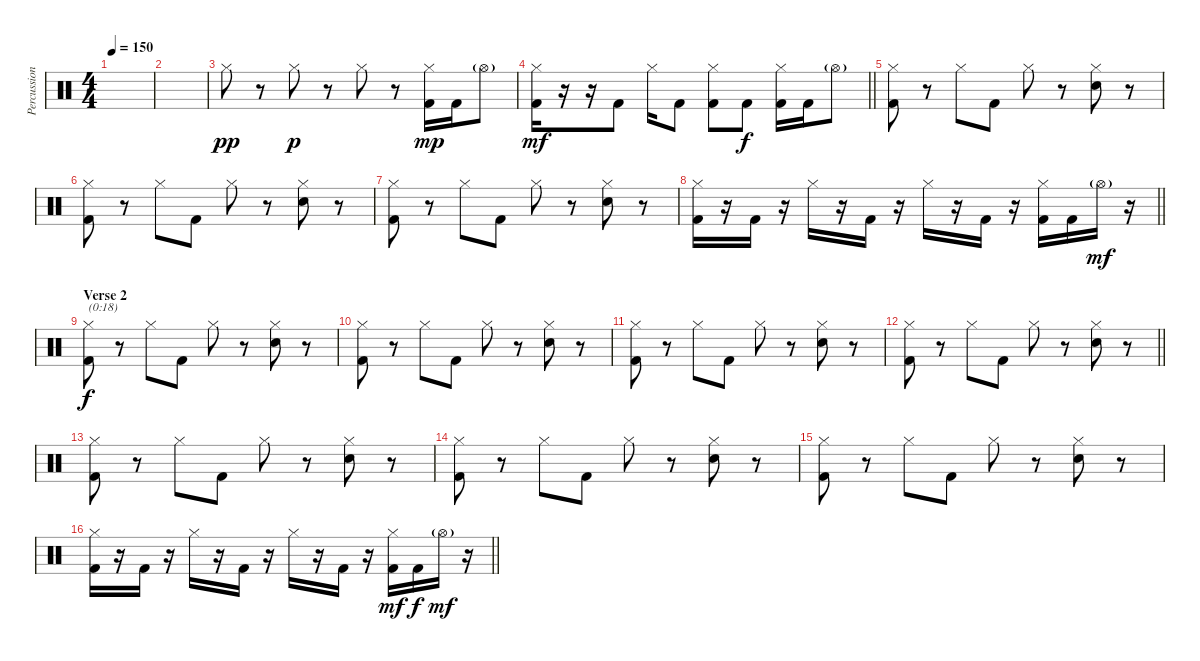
\track ("Percussion" "Percussion") {instrument percussion}
\staff {score}
\articulation defaults
\ts (4 4)
\tempo 150
\clef neutral
\ks c
|
|
"Hi-Hat (closed)".8{dy pp} r.8 "Hi-Hat (closed)".8{dy p} r.8 "Hi-Hat (closed)".8 r.8 ("Hi-Hat (closed)" "Kick (hit) 2").16{dy mp} "Kick (hit) 2".16 "Hi-Hat (open)"{g}.8 |
\barLineRight lightlight
("Hi-Hat (closed)" "Kick (hit) 2").16{dy mf} r.16 r.16 "Kick (hit) 2".8 "Hi-Hat (closed)".16 "Kick (hit) 2".8 ("Hi-Hat (closed)" "Kick (hit) 2").8 "Kick (hit) 2".8{dy f} ("Hi-Hat (closed)" "Kick (hit) 2").16 "Kick (hit) 2".16 "Hi-Hat (open)"{g}.8 |
\section ("" "")
("Hi-Hat (closed)" "Kick (hit) 2").8{volume 13} r.8 "Hi-Hat (closed)".8 "Kick (hit) 2".8 "Hi-Hat (closed)".8 r.8 ("Hi-Hat (closed)" "Hand Clap (hit)").8 r.8 |
("Hi-Hat (closed)" "Kick (hit) 2").8 r.8 "Hi-Hat (closed)".8 "Kick (hit) 2".8 "Hi-Hat (closed)".8 r.8 ("Hi-Hat (closed)" "Hand Clap (hit)").8 r.8 |
("Hi-Hat (closed)" "Kick (hit) 2").8 r.8 "Hi-Hat (closed)".8 "Kick (hit) 2".8 "Hi-Hat (closed)".8 r.8 ("Hi-Hat (closed)" "Hand Clap (hit)").8 r.8 |
\barLineRight lightlight
("Hi-Hat (closed)" "Kick (hit) 2").16 r.16 "Kick (hit) 2".16 r.16 "Hi-Hat (closed)".16 r.16 "Kick (hit) 2".16 r.16 "Hi-Hat (closed)".16 r.16 "Kick (hit) 2".16 r.16 ("Hi-Hat (closed)" "Kick (hit) 2").16 "Kick (hit) 2".16 "Hi-Hat (open)"{g}.16{dy mf} r.16 |
\section ("" "Verse 2")
("Hi-Hat (closed)" "Kick (hit) 2").8{txt "(0:18)" dy f} r.8 "Hi-Hat (closed)".8 "Kick (hit) 2".8 "Hi-Hat (closed)".8 r.8 ("Hi-Hat (closed)" "Hand Clap (hit)").8 r.8 |
("Hi-Hat (closed)" "Kick (hit) 2").8 r.8 "Hi-Hat (closed)".8 "Kick (hit) 2".8 "Hi-Hat (closed)".8 r.8 ("Hi-Hat (closed)" "Hand Clap (hit)").8 r.8 |
("Hi-Hat (closed)" "Kick (hit) 2").8 r.8 "Hi-Hat (closed)".8 "Kick (hit) 2".8 "Hi-Hat (closed)".8 r.8 ("Hi-Hat (closed)" "Hand Clap (hit)").8 r.8 |
\barLineRight lightlight
("Hi-Hat (closed)" "Kick (hit) 2").8 r.8 "Hi-Hat (closed)".8 "Kick (hit) 2".8 "Hi-Hat (closed)".8 r.8 ("Hi-Hat (closed)" "Hand Clap (hit)").8 r.8 |
("Hi-Hat (closed)" "Kick (hit) 2").8 r.8 "Hi-Hat (closed)".8 "Kick (hit) 2".8 "Hi-Hat (closed)".8 r.8 ("Hi-Hat (closed)" "Hand Clap (hit)").8 r.8 |
("Hi-Hat (closed)" "Kick (hit) 2").8 r.8 "Hi-Hat (closed)".8 "Kick (hit) 2".8 "Hi-Hat (closed)".8 r.8 ("Hi-Hat (closed)" "Hand Clap (hit)").8 r.8 |
("Hi-Hat (closed)" "Kick (hit) 2").8 r.8 "Hi-Hat (closed)".8 "Kick (hit) 2".8 "Hi-Hat (closed)".8 r.8 ("Hi-Hat (closed)" "Hand Clap (hit)").8 r.8 |
\barLineRight lightlight
("Hi-Hat (closed)" "Kick (hit) 2").16 r.16 "Kick (hit) 2".16 r.16 "Hi-Hat (closed)".16 r.16 "Kick (hit) 2".16 r.16 "Hi-Hat (closed)".16 r.16 "Kick (hit) 2".16 r.16 ("Hi-Hat (closed)" "Kick (hit) 2").16{dy mf} "Kick (hit) 2".16{dy f} "Hi-Hat (open)"{g}.16{dy mf} r.16
